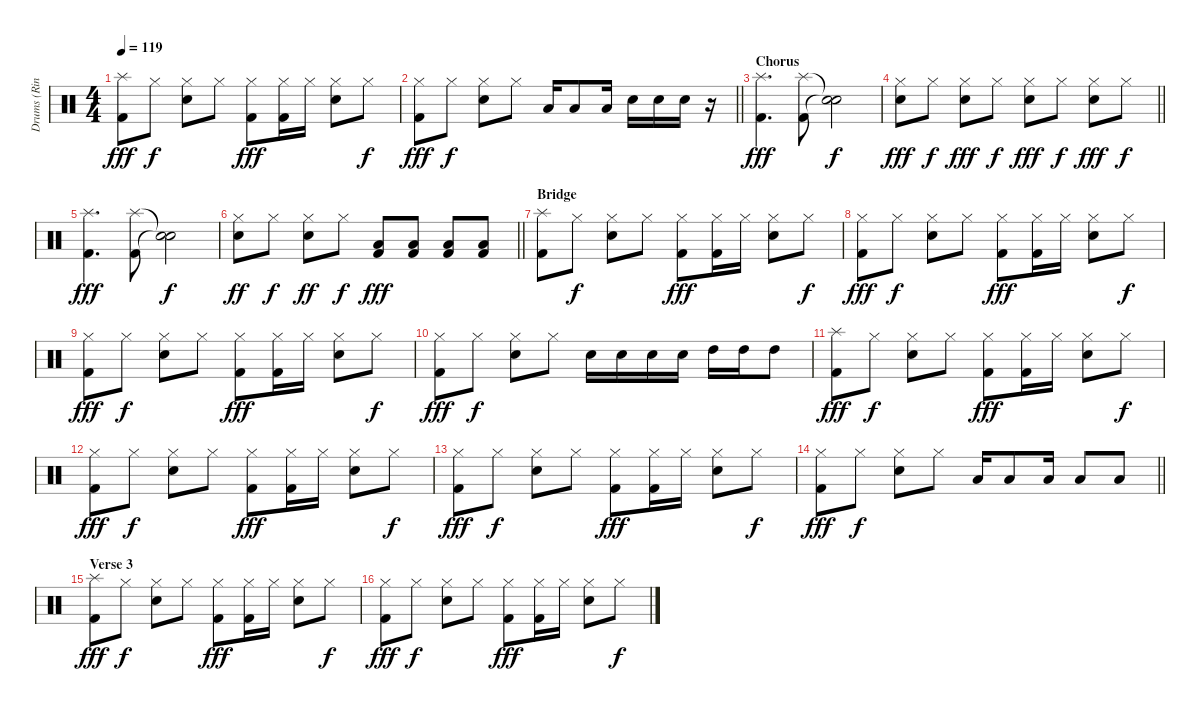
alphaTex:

\track ("Drums (Ringo Starr)" "Drums (Rin") {instrument percussion}
\staff {score}
\articulation defaults
\ts (4 4)
\tempo 119
\clef neutral
\ks c
("Splash (hit)" "Kick (hit) 2").8{dy fff} "Hi-Hat (closed)".8{dy f} ("Hi-Hat (closed)" "Snare (hit) 2").8 "Hi-Hat (closed)".8 ("Hi-Hat (closed)" "Kick (hit) 2").8{dy fff} ("Hi-Hat (closed)" "Kick (hit) 2").16 "Hi-Hat (closed)".16 ("Hi-Hat (closed)" "Snare (hit) 2").8 "Hi-Hat (closed)".8{dy f} |
\barLineRight lightlight
("Hi-Hat (closed)" "Kick (hit) 2").8{dy fff} "Hi-Hat (closed)".8{dy f} ("Hi-Hat (closed)" "Snare (hit) 2").8 "Hi-Hat (closed)".8 "Low Floor Tom (hit)".16 "Low Floor Tom (hit)".8 "Low Floor Tom (hit)".16 "Snare (hit) 2".16 "Snare (hit) 2".16 "Snare (hit) 2".16 r.16 |
\section ("" "Chorus")
("Splash (hit)" "Kick (hit) 2").4{d dy fff} ("Splash (hit)" "Kick (hit) 2").8 ("Snare (hit)"{t} "Snare (hit)"{t}).2{dy f} |
\barLineRight lightlight
("Hi-Hat (closed)" "Snare (hit) 2").8{dy fff} "Hi-Hat (closed)".8{dy f} ("Hi-Hat (closed)" "Snare (hit) 2").8{dy fff} "Hi-Hat (closed)".8{dy f} ("Hi-Hat (closed)" "Snare (hit) 2").8{dy fff} "Hi-Hat (closed)".8{dy f} ("Hi-Hat (closed)" "Snare (hit) 2").8{dy fff} "Hi-Hat (closed)".8{dy f} |
("Splash (hit)" "Kick (hit) 2").4{d dy fff} ("Splash (hit)" "Kick (hit) 2").8 ("Snare (hit)"{t} "Snare (hit)"{t}).2{dy f} |
\barLineRight lightlight
("Hi-Hat (closed)" "Snare (hit) 2").8{dy ff} "Hi-Hat (closed)".8{dy f} ("Hi-Hat (closed)" "Snare (hit) 2").8{dy ff} "Hi-Hat (closed)".8{dy f} ("Low Floor Tom (hit)" "Kick (hit) 2").8{dy fff} ("Low Floor Tom (hit)" "Kick (hit) 2").8 ("Low Floor Tom (hit)" "Kick (hit) 2").8 ("Low Floor Tom (hit)" "Kick (hit) 2").8 |
\section ("" "Bridge")
("Splash (hit)" "Kick (hit) 2").8 "Hi-Hat (closed)".8{dy f} ("Hi-Hat (closed)" "Snare (hit) 2").8 "Hi-Hat (closed)".8 ("Hi-Hat (closed)" "Kick (hit) 2").8{dy fff} ("Hi-Hat (closed)" "Kick (hit) 2").16 "Hi-Hat (closed)".16 ("Hi-Hat (closed)" "Snare (hit) 2").8 "Hi-Hat (closed)".8{dy f} |
("Hi-Hat (closed)" "Kick (hit) 2").8{dy fff} "Hi-Hat (closed)".8{dy f} ("Hi-Hat (closed)" "Snare (hit) 2").8 "Hi-Hat (closed)".8 ("Hi-Hat (closed)" "Kick (hit) 2").8{dy fff} ("Hi-Hat (closed)" "Kick (hit) 2").16 "Hi-Hat (closed)".16 ("Hi-Hat (closed)" "Snare (hit) 2").8 "Hi-Hat (closed)".8{dy f} |
("Hi-Hat (closed)" "Kick (hit) 2").8{dy fff} "Hi-Hat (closed)".8{dy f} ("Hi-Hat (closed)" "Snare (hit) 2").8 "Hi-Hat (closed)".8 ("Hi-Hat (closed)" "Kick (hit) 2").8{dy fff} ("Hi-Hat (closed)" "Kick (hit) 2").16 "Hi-Hat (closed)".16 ("Hi-Hat (closed)" "Snare (hit) 2").8 "Hi-Hat (closed)".8{dy f} |
("Hi-Hat (closed)" "Kick (hit) 2").8{dy fff} "Hi-Hat (closed)".8{dy f} ("Hi-Hat (closed)" "Snare (hit) 2").8 "Hi-Hat (closed)".8 "Snare (hit) 2".16 "Snare (hit) 2".16 "Snare (hit) 2".16 "Snare (hit) 2".16 "High Tom (hit)".16 "High Tom (hit)".16 "High Tom (hit)".8 |
("Splash (hit)" "Kick (hit) 2").8{dy fff} "Hi-Hat (closed)".8{dy f} ("Hi-Hat (closed)" "Snare (hit) 2").8 "Hi-Hat (closed)".8 ("Hi-Hat (closed)" "Kick (hit) 2").8{dy fff} ("Hi-Hat (closed)" "Kick (hit) 2").16 "Hi-Hat (closed)".16 ("Hi-Hat (closed)" "Snare (hit) 2").8 "Hi-Hat (closed)".8{dy f} |
("Hi-Hat (closed)" "Kick (hit) 2").8{dy fff} "Hi-Hat (closed)".8{dy f} ("Hi-Hat (closed)" "Snare (hit) 2").8 "Hi-Hat (closed)".8 ("Hi-Hat (closed)" "Kick (hit) 2").8{dy fff} ("Hi-Hat (closed)" "Kick (hit) 2").16 "Hi-Hat (closed)".16 ("Hi-Hat (closed)" "Snare (hit) 2").8 "Hi-Hat (closed)".8{dy f} |
("Hi-Hat (closed)" "Kick (hit) 2").8{dy fff} "Hi-Hat (closed)".8{dy f} ("Hi-Hat (closed)" "Snare (hit) 2").8 "Hi-Hat (closed)".8 ("Hi-Hat (closed)" "Kick (hit) 2").8{dy fff} ("Hi-Hat (closed)" "Kick (hit) 2").16 "Hi-Hat (closed)".16 ("Hi-Hat (closed)" "Snare (hit) 2").8 "Hi-Hat (closed)".8{dy f} |
\barLineRight lightlight
("Hi-Hat (closed)" "Kick (hit) 2").8{dy fff} "Hi-Hat (closed)".8{dy f} ("Hi-Hat (closed)" "Snare (hit) 2").8 "Hi-Hat (closed)".8 "Low Floor Tom (hit)".16 "Low Floor Tom (hit)".8 "Low Floor Tom (hit)".16 "Low Floor Tom (hit)".8 "Low Floor Tom (hit)".8 |
\section ("" "Verse 3")
("Splash (hit)" "Kick (hit) 2").8{dy fff} "Hi-Hat (closed)".8{dy f} ("Hi-Hat (closed)" "Snare (hit) 2").8 "Hi-Hat (closed)".8 ("Hi-Hat (closed)" "Kick (hit) 2").8{dy fff} ("Hi-Hat (closed)" "Kick (hit) 2").16 "Hi-Hat (closed)".16 ("Hi-Hat (closed)" "Snare (hit) 2").8 "Hi-Hat (closed)".8{dy f} |
("Hi-Hat (closed)" "Kick (hit) 2").8{dy fff} "Hi-Hat (closed)".8{dy f} ("Hi-Hat (closed)" "Snare (hit) 2").8 "Hi-Hat (closed)".8 ("Hi-Hat (closed)" "Kick (hit) 2").8{dy fff} ("Hi-Hat (closed)" "Kick (hit) 2").16 "Hi-Hat (closed)".16 ("Hi-Hat (closed)" "Snare (hit) 2").8 "Hi-Hat (closed)".8{dy f}
